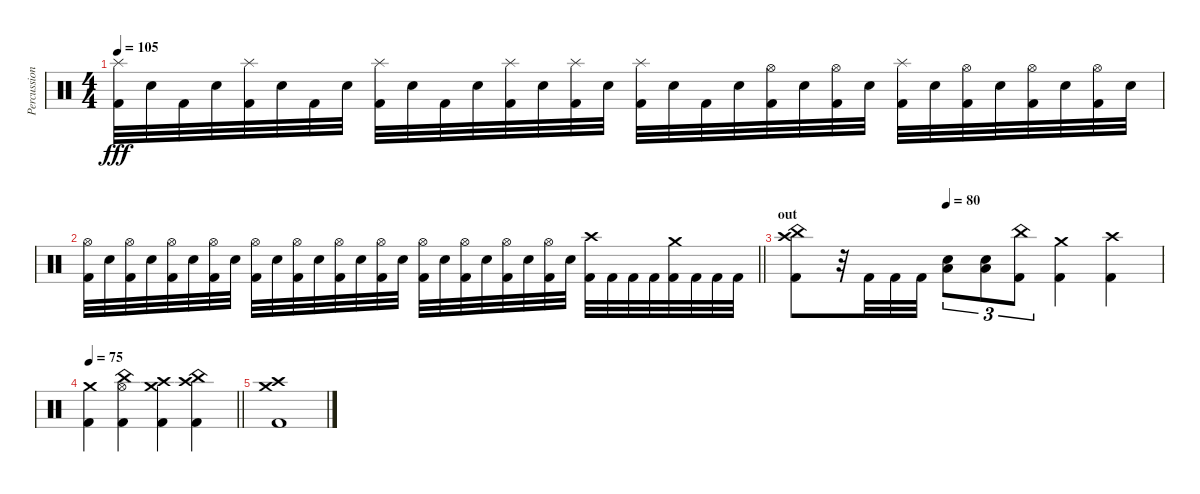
\track ("Percussion" "Percussion") {instrument percussion}
\staff {score}
\articulation defaults
\ts (4 4)
\tempo 105
\clef neutral
\ks c
("Splash (hit)" "Kick (hit) 2").32{dy fff} "Snare (hit) 2".32 "Kick (hit) 2".32 "Snare (hit) 2".32 ("Splash (hit)" "Kick (hit) 2").32 "Snare (hit) 2".32 "Kick (hit) 2".32 "Snare (hit) 2".32 ("Splash (hit)" "Kick (hit) 2").32 "Snare (hit) 2".32 "Kick (hit) 2".32 "Snare (hit) 2".32 ("Splash (hit)" "Kick (hit) 2").32 "Snare (hit) 2".32 ("Splash (hit)" "Kick (hit) 2").32 "Snare (hit) 2".32 ("Splash (hit)" "Kick (hit) 2").32 "Snare (hit) 2".32 "Kick (hit) 2".32 "Snare (hit) 2".32 ("Hi-Hat (open)" "Kick (hit) 2").32 "Snare (hit) 2".32 ("Hi-Hat (open)" "Kick (hit) 2").32 "Snare (hit) 2".32 ("Splash (hit)" "Kick (hit) 2").32 "Snare (hit) 2".32 ("Hi-Hat (open)" "Kick (hit) 2").32 "Snare (hit) 2".32 ("Hi-Hat (open)" "Kick (hit) 2").32 "Snare (hit) 2".32 ("Hi-Hat (open)" "Kick (hit) 2").32 "Snare (hit) 2".32 |
\barLineRight lightlight
("Hi-Hat (open)" "Kick (hit) 2").32 "Snare (hit) 2".32 ("Hi-Hat (open)" "Kick (hit) 2").32 "Snare (hit) 2".32 ("Hi-Hat (open)" "Kick (hit) 2").32 "Snare (hit) 2".32 ("Hi-Hat (open)" "Kick (hit) 2").32 "Snare (hit) 2".32 ("Hi-Hat (open)" "Kick (hit) 2").32 "Snare (hit) 2".32 ("Hi-Hat (open)" "Kick (hit) 2").32 "Snare (hit) 2".32 ("Hi-Hat (open)" "Kick (hit) 2").32 "Snare (hit) 2".32 ("Hi-Hat (open)" "Kick (hit) 2").32 "Snare (hit) 2".32 ("Hi-Hat (open)" "Kick (hit) 2").32 "Snare (hit) 2".32 ("Hi-Hat (open)" "Kick (hit) 2").32 "Snare (hit) 2".32 ("Hi-Hat (open)" "Kick (hit) 2").32 "Snare (hit) 2".32 ("Hi-Hat (open)" "Kick (hit) 2").32 "Snare (hit) 2".32 ("Crash high (hit)" "Kick (hit) 2").32 "Kick (hit) 2".32 "Kick (hit) 2".32 "Kick (hit) 2".32 ("Crash medium (hit)" "Kick (hit) 2").32 "Kick (hit) 2".32 "Kick (hit) 2".32 "Kick (hit) 2".32 |
\section ("" "out")
\tempo (80 0.4166666666666667)
("China (hit)" "Crash high (hit)" "Kick (hit) 2").8 r.32 "Kick (hit) 2".32 "Kick (hit) 2".32 "Kick (hit) 2".32 ("Snare (hit) 2" "Low Floor Tom (hit)").8{tu (3 2)} ("Snare (hit) 2" "Low Floor Tom (hit)").8{tu (3 2)} ("China (hit)" "Kick (hit) 2").8{tu (3 2)} ("Crash medium (hit)" "Kick (hit) 2").4 ("Crash high (hit)" "Kick (hit) 2").4 |
\tempo 75
\barLineRight lightlight
("Crash medium (hit)" "Kick (hit) 2").4 ("China (hit)" "Hi-Hat (open)" "Kick (hit) 2").4 ("Crash medium (hit)" "Crash high (hit)" "Kick (hit) 2").4 ("China (hit)" "Crash high (hit)" "Kick (hit) 2").4 |
("Crash medium (hit)" "Crash high (hit)" "Kick (hit) 2").1
